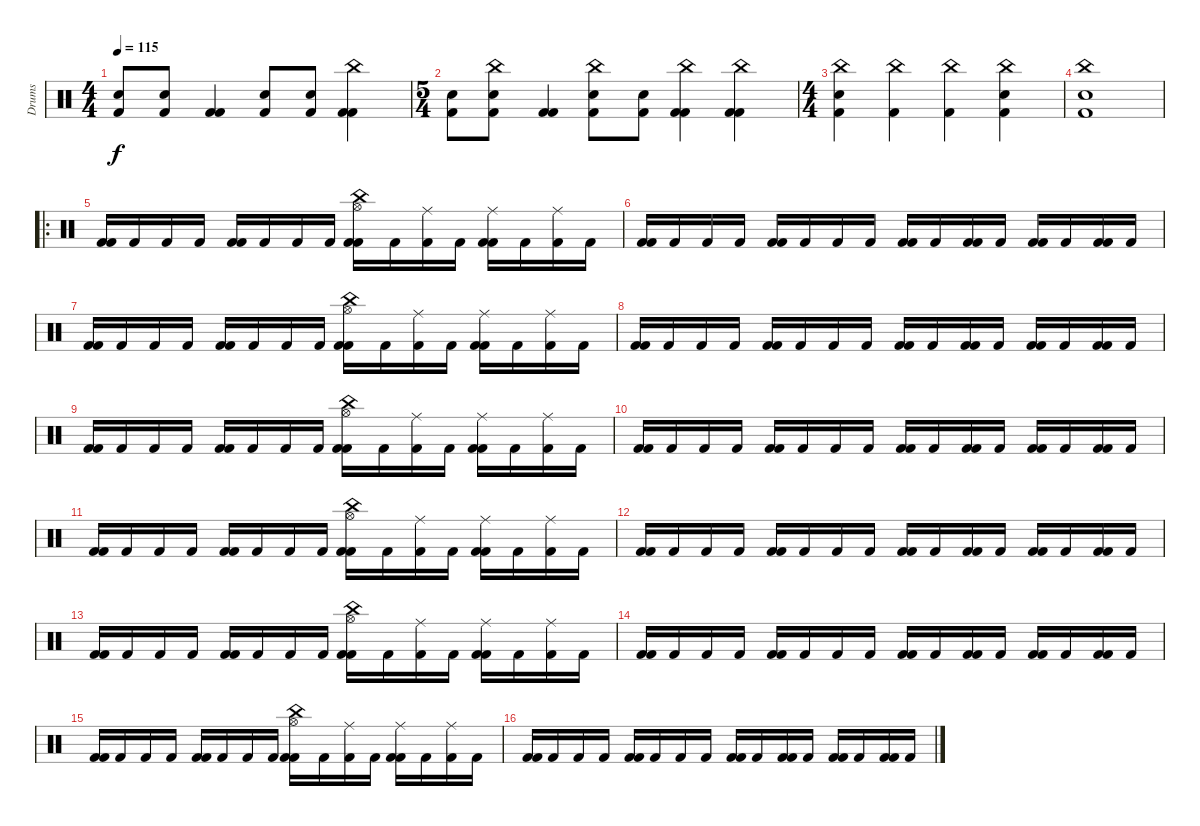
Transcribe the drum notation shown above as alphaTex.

\track ("Drums" "Drums") {instrument percussion}
\staff {score}
\articulation defaults
\ts (4 4)
\tempo 115
\clef neutral
\ks c
("Kick (hit) 2" "Snare (hit) 2").8{dy f} ("Kick (hit) 2" "Snare (hit) 2").8 ("Kick (hit) 2" "Kick (hit) 2").4 ("Kick (hit) 2" "Snare (hit) 2").8 ("Kick (hit) 2" "Snare (hit) 2").8 ("China (hit)" "Kick (hit) 2" "Kick (hit) 2").4 |
\ts (5 4)
("Kick (hit) 2" "Snare (hit) 2").8 ("China (hit)" "Kick (hit) 2" "Snare (hit) 2").8 ("Kick (hit) 2" "Kick (hit) 2").4 ("China (hit)" "Kick (hit) 2" "Snare (hit) 2").8 ("Kick (hit) 2" "Snare (hit) 2").8 ("China (hit)" "Kick (hit) 2" "Kick (hit) 2").4 ("China (hit)" "Kick (hit) 2" "Kick (hit) 2").4 |
\ts (4 4)
("China (hit)" "Kick (hit) 2" "Snare (hit) 2").4 ("China (hit)" "Kick (hit) 2").4 ("China (hit)" "Kick (hit) 2").4 ("China (hit)" "Kick (hit) 2" "Snare (hit) 2").4 |
("China (hit)" "Kick (hit) 2" "Snare (hit) 2").1 |
\ro
("Kick (hit) 2" "Kick (hit) 2").16 "Kick (hit) 2".16 "Kick (hit) 2".16 "Kick (hit) 2".16 ("Kick (hit) 2" "Kick (hit) 2").16 "Kick (hit) 2".16 "Kick (hit) 2".16 "Kick (hit) 2".16 ("China (hit)" "Kick (hit) 2" "Kick (hit) 2" "Hi-Hat (open)").16 "Kick (hit) 2".16 ("Ride (middle)" "Kick (hit) 2").16 "Kick (hit) 2".16 ("Ride (middle)" "Kick (hit) 2" "Kick (hit) 2").16 "Kick (hit) 2".16 ("Ride (middle)" "Kick (hit) 2").16 "Kick (hit) 2".16 |
("Kick (hit) 2" "Kick (hit) 2").16 "Kick (hit) 2".16 "Kick (hit) 2".16 "Kick (hit) 2".16 ("Kick (hit) 2" "Kick (hit) 2").16 "Kick (hit) 2".16 "Kick (hit) 2".16 "Kick (hit) 2".16 ("Kick (hit) 2" "Kick (hit) 2").16 "Kick (hit) 2".16 ("Kick (hit) 2" "Kick (hit) 2").16 "Kick (hit) 2".16 ("Kick (hit) 2" "Kick (hit) 2").16 "Kick (hit) 2".16 ("Kick (hit) 2" "Kick (hit) 2").16 "Kick (hit) 2".16 |
("Kick (hit) 2" "Kick (hit) 2").16 "Kick (hit) 2".16 "Kick (hit) 2".16 "Kick (hit) 2".16 ("Kick (hit) 2" "Kick (hit) 2").16 "Kick (hit) 2".16 "Kick (hit) 2".16 "Kick (hit) 2".16 ("China (hit)" "Kick (hit) 2" "Kick (hit) 2" "Hi-Hat (open)").16 "Kick (hit) 2".16 ("Ride (middle)" "Kick (hit) 2").16 "Kick (hit) 2".16 ("Ride (middle)" "Kick (hit) 2" "Kick (hit) 2").16 "Kick (hit) 2".16 ("Ride (middle)" "Kick (hit) 2").16 "Kick (hit) 2".16 |
("Kick (hit) 2" "Kick (hit) 2").16 "Kick (hit) 2".16 "Kick (hit) 2".16 "Kick (hit) 2".16 ("Kick (hit) 2" "Kick (hit) 2").16 "Kick (hit) 2".16 "Kick (hit) 2".16 "Kick (hit) 2".16 ("Kick (hit) 2" "Kick (hit) 2").16 "Kick (hit) 2".16 ("Kick (hit) 2" "Kick (hit) 2").16 "Kick (hit) 2".16 ("Kick (hit) 2" "Kick (hit) 2").16 "Kick (hit) 2".16 ("Kick (hit) 2" "Kick (hit) 2").16 "Kick (hit) 2".16 |
("Kick (hit) 2" "Kick (hit) 2").16 "Kick (hit) 2".16 "Kick (hit) 2".16 "Kick (hit) 2".16 ("Kick (hit) 2" "Kick (hit) 2").16 "Kick (hit) 2".16 "Kick (hit) 2".16 "Kick (hit) 2".16 ("China (hit)" "Kick (hit) 2" "Kick (hit) 2" "Hi-Hat (open)").16 "Kick (hit) 2".16 ("Ride (middle)" "Kick (hit) 2").16 "Kick (hit) 2".16 ("Ride (middle)" "Kick (hit) 2" "Kick (hit) 2").16 "Kick (hit) 2".16 ("Ride (middle)" "Kick (hit) 2").16 "Kick (hit) 2".16 |
("Kick (hit) 2" "Kick (hit) 2").16 "Kick (hit) 2".16 "Kick (hit) 2".16 "Kick (hit) 2".16 ("Kick (hit) 2" "Kick (hit) 2").16 "Kick (hit) 2".16 "Kick (hit) 2".16 "Kick (hit) 2".16 ("Kick (hit) 2" "Kick (hit) 2").16 "Kick (hit) 2".16 ("Kick (hit) 2" "Kick (hit) 2").16 "Kick (hit) 2".16 ("Kick (hit) 2" "Kick (hit) 2").16 "Kick (hit) 2".16 ("Kick (hit) 2" "Kick (hit) 2").16 "Kick (hit) 2".16 |
("Kick (hit) 2" "Kick (hit) 2").16 "Kick (hit) 2".16 "Kick (hit) 2".16 "Kick (hit) 2".16 ("Kick (hit) 2" "Kick (hit) 2").16 "Kick (hit) 2".16 "Kick (hit) 2".16 "Kick (hit) 2".16 ("China (hit)" "Kick (hit) 2" "Kick (hit) 2" "Hi-Hat (open)").16 "Kick (hit) 2".16 ("Ride (middle)" "Kick (hit) 2").16 "Kick (hit) 2".16 ("Ride (middle)" "Kick (hit) 2" "Kick (hit) 2").16 "Kick (hit) 2".16 ("Ride (middle)" "Kick (hit) 2").16 "Kick (hit) 2".16 |
("Kick (hit) 2" "Kick (hit) 2").16 "Kick (hit) 2".16 "Kick (hit) 2".16 "Kick (hit) 2".16 ("Kick (hit) 2" "Kick (hit) 2").16 "Kick (hit) 2".16 "Kick (hit) 2".16 "Kick (hit) 2".16 ("Kick (hit) 2" "Kick (hit) 2").16 "Kick (hit) 2".16 ("Kick (hit) 2" "Kick (hit) 2").16 "Kick (hit) 2".16 ("Kick (hit) 2" "Kick (hit) 2").16 "Kick (hit) 2".16 ("Kick (hit) 2" "Kick (hit) 2").16 "Kick (hit) 2".16 |
("Kick (hit) 2" "Kick (hit) 2").16 "Kick (hit) 2".16 "Kick (hit) 2".16 "Kick (hit) 2".16 ("Kick (hit) 2" "Kick (hit) 2").16 "Kick (hit) 2".16 "Kick (hit) 2".16 "Kick (hit) 2".16 ("China (hit)" "Kick (hit) 2" "Kick (hit) 2" "Hi-Hat (open)").16 "Kick (hit) 2".16 ("Ride (middle)" "Kick (hit) 2").16 "Kick (hit) 2".16 ("Ride (middle)" "Kick (hit) 2" "Kick (hit) 2").16 "Kick (hit) 2".16 ("Ride (middle)" "Kick (hit) 2").16 "Kick (hit) 2".16 |
("Kick (hit) 2" "Kick (hit) 2").16 "Kick (hit) 2".16 "Kick (hit) 2".16 "Kick (hit) 2".16 ("Kick (hit) 2" "Kick (hit) 2").16 "Kick (hit) 2".16 "Kick (hit) 2".16 "Kick (hit) 2".16 ("Kick (hit) 2" "Kick (hit) 2").16 "Kick (hit) 2".16 ("Kick (hit) 2" "Kick (hit) 2").16 "Kick (hit) 2".16 ("Kick (hit) 2" "Kick (hit) 2").16 "Kick (hit) 2".16 ("Kick (hit) 2" "Kick (hit) 2").16 "Kick (hit) 2".16 |
("Kick (hit) 2" "Kick (hit) 2").16 "Kick (hit) 2".16 "Kick (hit) 2".16 "Kick (hit) 2".16 ("Kick (hit) 2" "Kick (hit) 2").16 "Kick (hit) 2".16 "Kick (hit) 2".16 "Kick (hit) 2".16 ("China (hit)" "Kick (hit) 2" "Kick (hit) 2" "Hi-Hat (open)").16 "Kick (hit) 2".16 ("Ride (middle)" "Kick (hit) 2").16 "Kick (hit) 2".16 ("Ride (middle)" "Kick (hit) 2" "Kick (hit) 2").16 "Kick (hit) 2".16 ("Ride (middle)" "Kick (hit) 2").16 "Kick (hit) 2".16 |
("Kick (hit) 2" "Kick (hit) 2").16 "Kick (hit) 2".16 "Kick (hit) 2".16 "Kick (hit) 2".16 ("Kick (hit) 2" "Kick (hit) 2").16 "Kick (hit) 2".16 "Kick (hit) 2".16 "Kick (hit) 2".16 ("Kick (hit) 2" "Kick (hit) 2").16 "Kick (hit) 2".16 ("Kick (hit) 2" "Kick (hit) 2").16 "Kick (hit) 2".16 ("Kick (hit) 2" "Kick (hit) 2").16 "Kick (hit) 2".16 ("Kick (hit) 2" "Kick (hit) 2").16 "Kick (hit) 2".16
